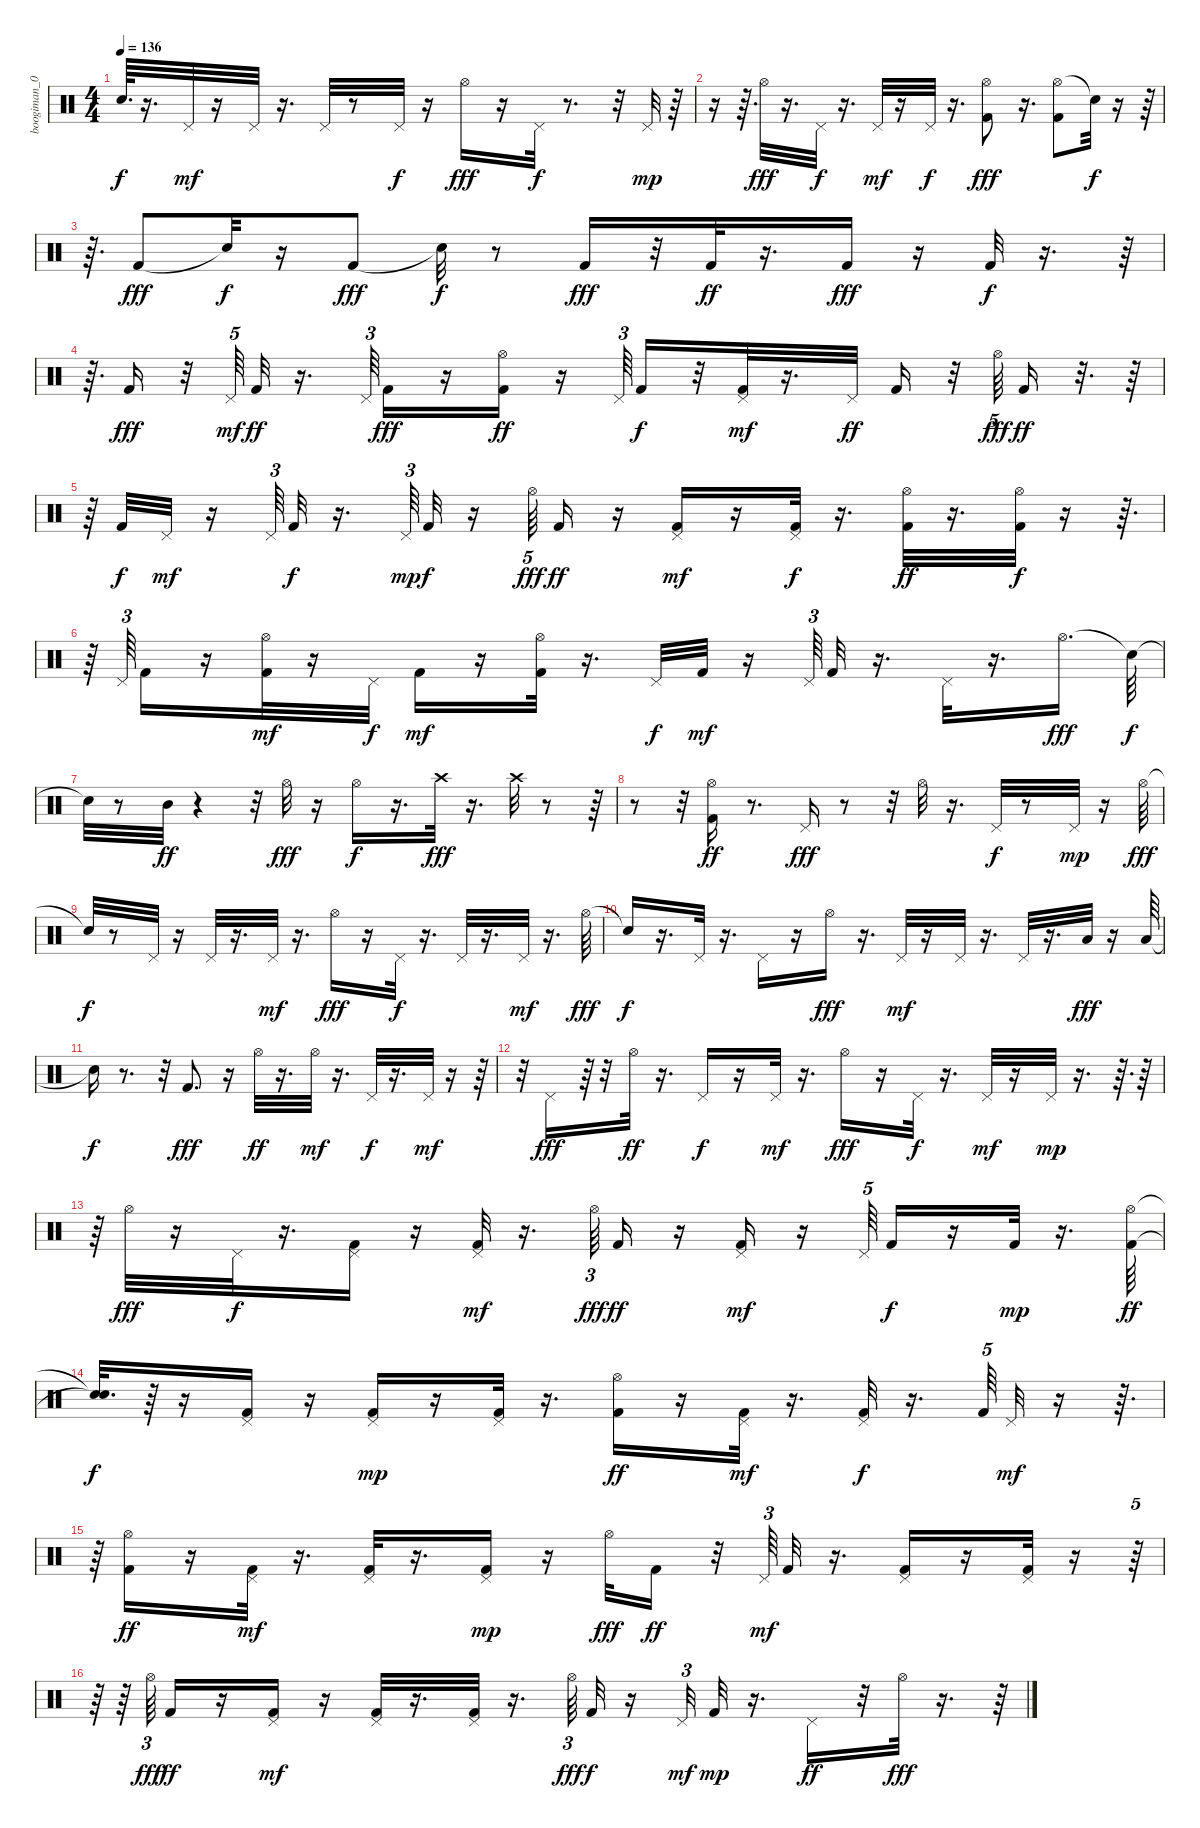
\track ("boogiman_007@yahoo.com" "boogiman_0") {instrument percussion}
\staff {score}
\articulation defaults
\ts (4 4)
\tempo 136
\clef neutral
\ks c "Snare (hit)"{t}.64{d dy f}
r.16{d} "Pedal Hi-Hat (hit)".32{dy mf} r.16 "Pedal Hi-Hat (hit)".32 r.16{d} "Pedal Hi-Hat (hit)".32 r.8 "Pedal Hi-Hat (hit)".32{dy f} r.16 "Hi-Hat (open)".16{dy fff} r.16 "Pedal Hi-Hat (hit)".32{dy f} r.8{d} r.32 "Pedal Hi-Hat (hit)".32{dy mp} r.64 |
r.16 r.64{d} "Hi-Hat (open)".32{dy fff} r.16{d} "Pedal Hi-Hat (hit)".32{dy f} r.16{d} "Pedal Hi-Hat (hit)".32{dy mf} r.16 "Pedal Hi-Hat (hit)".32{dy f} r.16{d} ("Hi-Hat (open)" "Kick (hit) 2").8{dy fff} r.16{d} ("Hi-Hat (open)" "Kick (hit) 2").8 "Snare (hit)"{t}.32{dy f} r.16 r.64 |
r.64{d} "Kick (hit) 2".8{dy fff} "Snare (hit)"{t}.32{dy f} r.16 "Kick (hit) 2".8{dy fff} "Snare (hit)"{t}.32{dy f} r.8 "Kick (hit) 2".16{dy fff} r.32 "Kick (hit) 2".32{dy ff} r.16{d} "Kick (hit) 2".16{dy fff} r.16 "Kick (hit) 2".32{dy f} r.16{d} r.64 |
r.64{d} "Kick (hit) 2".16{dy fff} r.32 "Pedal Hi-Hat (hit)".64{tu (5 4) dy mf} "Kick (hit) 2".32{dy ff} r.16{d} "Pedal Hi-Hat (hit)".64{tu (3 2)} "Kick (hit) 2".16{dy fff} r.16 ("Hi-Hat (open)" "Kick (hit) 2").16{dy ff} r.16 "Pedal Hi-Hat (hit)".64{tu (3 2)} "Kick (hit) 2".16{dy f} r.32 ("Pedal Hi-Hat (hit)" "Kick (hit) 2").32{dy mf} r.16{d} "Pedal Hi-Hat (hit)".32{dy ff} "Kick (hit) 2".16 r.32 "Hi-Hat (open)".64{tu (5 4) dy fff} "Kick (hit) 2".16{dy ff} r.32{d} r.64 |
r.64 "Kick (hit) 2".32{dy f} "Pedal Hi-Hat (hit)".32{dy mf} r.16 "Pedal Hi-Hat (hit)".64{tu (3 2)} "Kick (hit) 2".32{dy f} r.16{d} "Pedal Hi-Hat (hit)".64{tu (3 2) dy mp} "Kick (hit) 2".32{dy f} r.16 "Hi-Hat (open)".64{tu (5 4) dy fff} "Kick (hit) 2".16{dy ff} r.16 ("Pedal Hi-Hat (hit)" "Kick (hit) 2").16{dy mf} r.16 ("Pedal Hi-Hat (hit)" "Kick (hit) 2").32{dy f} r.16{d} ("Hi-Hat (open)" "Kick (hit) 2").32{dy ff} r.16{d} ("Hi-Hat (open)" "Kick (hit) 2").32{dy f} r.16 r.64{d} |
r.64 "Pedal Hi-Hat (hit)".64{tu (3 2)} "Kick (hit) 2".16 r.16 ("Hi-Hat (open)" "Kick (hit) 2").32{dy mf} r.16 "Pedal Hi-Hat (hit)".32{dy f} "Kick (hit) 2".16{dy mf} r.16 ("Hi-Hat (open)" "Kick (hit) 2").32 r.16{d} "Pedal Hi-Hat (hit)".32{dy f} "Kick (hit) 2".32{dy mf} r.16 "Pedal Hi-Hat (hit)".64{tu (3 2)} "Kick (hit) 2".32 r.16{d} "Pedal Hi-Hat (hit)".32 r.16{d} "Hi-Hat (open)".16{d dy fff} "Snare (hit)"{t}.64{dy f} |
"Snare (hit)"{t}.32 r.8 "Mid Tom (hit)".32{dy ff} r.4 r.32 "Hi-Hat (open)".32{dy fff} r.16 "Hi-Hat (open)".16{dy f} r.16{d} "Crash high (hit)".32{dy fff} r.16{d} "Crash high (hit)".32 r.8 r.64 |
r.8 r.32 ("Hi-Hat (open)" "Kick (hit) 2").16{dy ff} r.8{d} "Pedal Hi-Hat (hit)".16{dy fff} r.8 r.32 "Hi-Hat (open)".32 r.16{d} "Pedal Hi-Hat (hit)".32{dy f} r.8 "Pedal Hi-Hat (hit)".32{dy mp} r.16 "Hi-Hat (open)".64{dy fff} |
"Snare (hit)"{t}.32{dy f} r.8 "Pedal Hi-Hat (hit)".32 r.16 "Pedal Hi-Hat (hit)".32 r.16{d} "Pedal Hi-Hat (hit)".32{dy mf} r.16{d} "Hi-Hat (open)".16{dy fff} r.16 "Pedal Hi-Hat (hit)".32{dy f} r.16{d} "Pedal Hi-Hat (hit)".32 r.16{d} "Pedal Hi-Hat (hit)".32{dy mf} r.16{d} "Hi-Hat (open)".64{dy fff} |
"Snare (hit)"{t}.16{dy f} r.16{d} "Pedal Hi-Hat (hit)".32 r.16{d} "Pedal Hi-Hat (hit)".16 r.16 "Hi-Hat (open)".16{dy fff} r.16{d} "Pedal Hi-Hat (hit)".32{dy mf} r.16 "Pedal Hi-Hat (hit)".32 r.16{d} "Pedal Hi-Hat (hit)".32 r.16{d} "Low Floor Tom (hit)".32{dy fff} r.16 "Low Floor Tom (hit)".64 |
"Snare (hit)"{t}.16{dy f} r.8{d} r.32 "Kick (hit) 2".8{d dy fff} r.16 "Hi-Hat (open)".32{dy ff} r.16{d} "Hi-Hat (open)".32{dy mf} r.16{d} "Pedal Hi-Hat (hit)".32{dy f} r.16{d} "Pedal Hi-Hat (hit)".32{dy mf} r.16 r.64 |
r.32 "Pedal Hi-Hat (hit)".16{dy fff} r.64 r.32 "Hi-Hat (open)".32{dy ff} r.16{d} "Pedal Hi-Hat (hit)".16{dy f} r.16 "Pedal Hi-Hat (hit)".32{dy mf} r.16{d} "Hi-Hat (open)".16{dy fff} r.16 "Pedal Hi-Hat (hit)".32{dy f} r.16{d} "Pedal Hi-Hat (hit)".32{dy mf} r.16 "Pedal Hi-Hat (hit)".32{dy mp} r.16{d} r.64{d} r.64 |
r.64 "Hi-Hat (open)".32{dy fff} r.16 "Pedal Hi-Hat (hit)".32{dy f} r.16{d} ("Kick (hit) 2" "Pedal Hi-Hat (hit)").16 r.16 ("Pedal Hi-Hat (hit)" "Kick (hit) 2").32{dy mf} r.16{d} "Hi-Hat (open)".64{tu (3 2) dy fff} "Kick (hit) 2".16{dy ff} r.16 ("Pedal Hi-Hat (hit)" "Kick (hit) 2").16{dy mf} r.16 "Pedal Hi-Hat (hit)".64{tu (5 4)} "Kick (hit) 2".16{dy f} r.16 "Kick (hit) 2".32{dy mp} r.16{d} ("Hi-Hat (open)" "Kick (hit) 2").64{dy ff} |
("Snare (hit)"{t} "Snare (hit)"{t}).32{d dy f} r.64 r.16 ("Kick (hit) 2" "Pedal Hi-Hat (hit)").16 r.16 ("Kick (hit) 2" "Pedal Hi-Hat (hit)").16{dy mp} r.16 ("Kick (hit) 2" "Pedal Hi-Hat (hit)").32 r.16{d} ("Hi-Hat (open)" "Kick (hit) 2").16{dy ff} r.16 ("Kick (hit) 2" "Pedal Hi-Hat (hit)").32{dy mf} r.16{d} ("Kick (hit) 2" "Pedal Hi-Hat (hit)").32{dy f} r.16{d} "Kick (hit) 2".64{tu (5 4)} "Pedal Hi-Hat (hit)".32{dy mf} r.16 r.64{d} |
r.64 ("Hi-Hat (open)" "Kick (hit) 2").16{dy ff} r.16 ("Pedal Hi-Hat (hit)" "Kick (hit) 2").32{dy mf} r.16{d} ("Pedal Hi-Hat (hit)" "Kick (hit) 2").32 r.16{d} ("Kick (hit) 2" "Pedal Hi-Hat (hit)").16{dy mp} r.16 "Hi-Hat (open)".32{dy fff} "Kick (hit) 2".16{dy ff} r.32 "Pedal Hi-Hat (hit)".64{tu (3 2) dy mf} "Kick (hit) 2".32 r.16{d} ("Pedal Hi-Hat (hit)" "Kick (hit) 2").16 r.16 ("Kick (hit) 2" "Pedal Hi-Hat (hit)").32 r.16 r.64{tu (5 4)} |
r.64 r.64 "Hi-Hat (open)".64{tu (3 2) dy fff} "Kick (hit) 2".16{dy ff} r.16 ("Kick (hit) 2" "Pedal Hi-Hat (hit)").16{dy mf} r.16 ("Pedal Hi-Hat (hit)" "Kick (hit) 2").32 r.16{d} ("Pedal Hi-Hat (hit)" "Kick (hit) 2").32 r.16{d} "Hi-Hat (open)".64{tu (3 2) dy fff} "Kick (hit) 2".32{dy f} r.16 "Pedal Hi-Hat (hit)".32{tu (3 2) dy mf} "Kick (hit) 2".32{dy mp} r.16{d} "Pedal Hi-Hat (hit)".16{dy ff} r.32 "Hi-Hat (open)".32{dy fff} r.16{d} r.64
